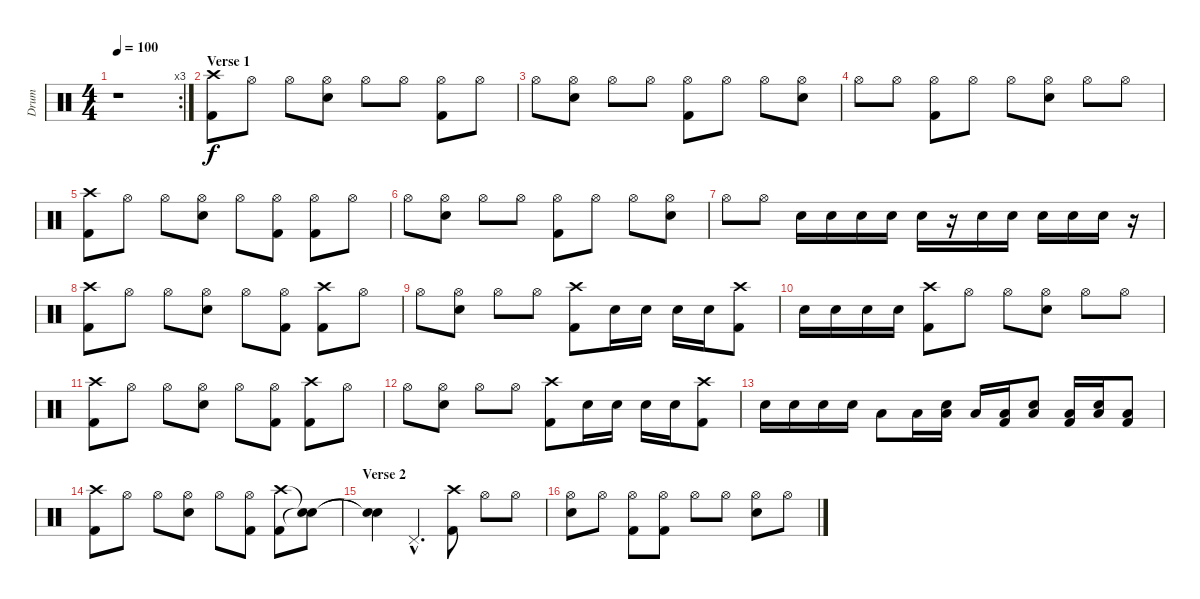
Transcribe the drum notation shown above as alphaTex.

\track ("Drum" "Drum") {instrument percussion}
\staff {score}
\articulation defaults
\rc 3
\ts (4 4)
\tempo 100
\clef neutral
\ks c
r.1{dy f} |
\section ("" "Verse 1")
("Crash high (hit)" "Kick (hit) 2").8 "Hi-Hat (open)".8 "Hi-Hat (open)".8 ("Hi-Hat (open)" "Snare (hit) 2").8 "Hi-Hat (open)".8 "Hi-Hat (open)".8 ("Hi-Hat (open)" "Kick (hit) 2").8 "Hi-Hat (open)".8 |
"Hi-Hat (open)".8 ("Hi-Hat (open)" "Snare (hit) 2").8 "Hi-Hat (open)".8 "Hi-Hat (open)".8 ("Hi-Hat (open)" "Kick (hit) 2").8 "Hi-Hat (open)".8 "Hi-Hat (open)".8 ("Hi-Hat (open)" "Snare (hit) 2").8 |
"Hi-Hat (open)".8 "Hi-Hat (open)".8 ("Hi-Hat (open)" "Kick (hit) 2").8 "Hi-Hat (open)".8 "Hi-Hat (open)".8 ("Hi-Hat (open)" "Snare (hit) 2").8 "Hi-Hat (open)".8 "Hi-Hat (open)".8 |
("Crash high (hit)" "Kick (hit) 2").8 "Hi-Hat (open)".8 "Hi-Hat (open)".8 ("Hi-Hat (open)" "Snare (hit) 2").8 "Hi-Hat (open)".8 ("Hi-Hat (open)" "Kick (hit) 2").8 ("Hi-Hat (open)" "Kick (hit) 2").8 "Hi-Hat (open)".8 |
"Hi-Hat (open)".8 ("Hi-Hat (open)" "Snare (hit) 2").8 "Hi-Hat (open)".8 "Hi-Hat (open)".8 ("Hi-Hat (open)" "Kick (hit) 2").8 "Hi-Hat (open)".8 "Hi-Hat (open)".8 ("Hi-Hat (open)" "Snare (hit) 2").8 |
"Hi-Hat (open)".8 "Hi-Hat (open)".8 "Snare (hit) 2".16 "Snare (hit) 2".16 "Snare (hit) 2".16 "Snare (hit) 2".16 "Snare (hit) 2".16 r.16 "Snare (hit) 2".16 "Snare (hit) 2".16 "Snare (hit) 2".16 "Snare (hit) 2".16 "Snare (hit) 2".16 r.16 |
("Crash high (hit)" "Kick (hit) 2").8 "Hi-Hat (open)".8 "Hi-Hat (open)".8 ("Hi-Hat (open)" "Snare (hit) 2").8 "Hi-Hat (open)".8 ("Hi-Hat (open)" "Kick (hit) 2").8 ("Crash high (hit)" "Kick (hit) 2").8 "Hi-Hat (open)".8 |
"Hi-Hat (open)".8 ("Hi-Hat (open)" "Snare (hit) 2").8 "Hi-Hat (open)".8 "Hi-Hat (open)".8 ("Crash high (hit)" "Kick (hit) 2").8 "Snare (hit) 2".16 "Snare (hit) 2".16 "Snare (hit) 2".16 "Snare (hit) 2".16 ("Crash high (hit)" "Kick (hit) 2").8 |
"Snare (hit) 2".16 "Snare (hit) 2".16 "Snare (hit) 2".16 "Snare (hit) 2".16 ("Crash high (hit)" "Kick (hit) 2").8 "Hi-Hat (open)".8 "Hi-Hat (open)".8 ("Hi-Hat (open)" "Snare (hit) 2").8 "Hi-Hat (open)".8 "Hi-Hat (open)".8 |
("Crash high (hit)" "Kick (hit) 2").8 "Hi-Hat (open)".8 "Hi-Hat (open)".8 ("Hi-Hat (open)" "Snare (hit) 2").8 "Hi-Hat (open)".8 ("Hi-Hat (open)" "Kick (hit) 2").8 ("Crash high (hit)" "Kick (hit) 2").8 "Hi-Hat (open)".8 |
"Hi-Hat (open)".8 ("Hi-Hat (open)" "Snare (hit) 2").8 "Hi-Hat (open)".8 "Hi-Hat (open)".8 ("Crash high (hit)" "Kick (hit) 2").8 "Snare (hit) 2".16 "Snare (hit) 2".16 "Snare (hit) 2".16 "Snare (hit) 2".16 ("Crash high (hit)" "Kick (hit) 2").8 |
"Snare (hit) 2".16 "Snare (hit) 2".16 "Snare (hit) 2".16 "Snare (hit) 2".16 "Low Tom (hit)".8 "Low Tom (hit)".16 ("Low Floor Tom (hit)" "Snare (hit) 2").16 "Low Tom (hit)".16 ("Low Floor Tom (hit)" "Kick (hit) 2").16 ("Low Floor Tom (hit)" "Snare (hit) 2").8 ("Low Floor Tom (hit)" "Kick (hit) 2").16 ("Low Floor Tom (hit)" "Snare (hit) 2").16 ("Low Floor Tom (hit)" "Kick (hit) 2").8 |
("Crash high (hit)" "Kick (hit) 2").8 "Hi-Hat (open)".8 "Hi-Hat (open)".8 ("Hi-Hat (open)" "Snare (hit) 2").8 "Hi-Hat (open)".8 ("Hi-Hat (open)" "Kick (hit) 2").8 ("Crash high (hit)" "Kick (hit) 2").8 ("Snare (hit)"{t} "Snare (hit)"{t}).8 |
\section ("" "Verse 2")
("Snare (hit)"{t} "Snare (hit)"{t}).4 "Pedal Hi-Hat (hit)"{hac}.4{d} ("Crash high (hit)" "Kick (hit) 2").8 "Hi-Hat (open)".8 "Hi-Hat (open)".8 |
("Hi-Hat (open)" "Snare (hit) 2").8 "Hi-Hat (open)".8 ("Hi-Hat (open)" "Kick (hit) 2").8 ("Hi-Hat (open)" "Kick (hit) 2").8 "Hi-Hat (open)".8 "Hi-Hat (open)".8 ("Hi-Hat (open)" "Snare (hit) 2").8 "Hi-Hat (open)".8
